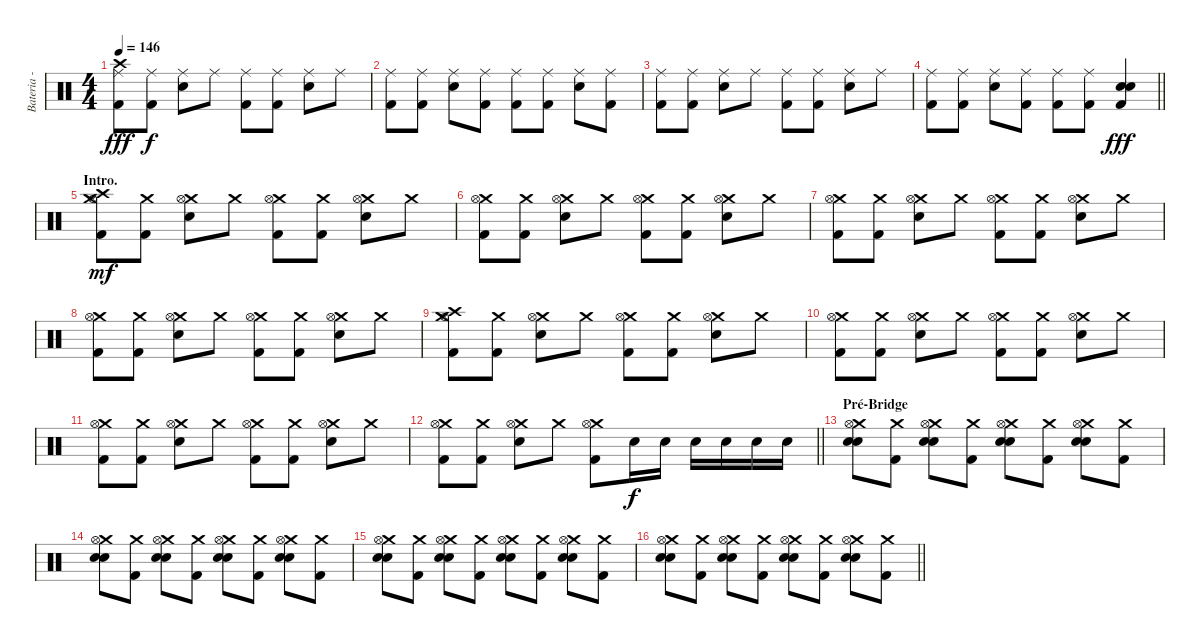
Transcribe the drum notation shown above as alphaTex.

\track ("Bateria - Larzon" "Bateria - ") {instrument percussion}
\staff {score}
\articulation defaults
\ts (4 4)
\tempo 146
\clef neutral
\ks c
("Kick (hit) 2" "Ride (middle)" "Crash high (hit)").8{dy fff} ("Kick (hit) 2" "Ride (middle)").8{dy f} ("Electric Snare (hit)" "Ride (middle)").8 "Ride (middle)".8 ("Kick (hit) 2" "Ride (middle)").8 ("Kick (hit) 2" "Ride (middle)").8 ("Electric Snare (hit)" "Ride (middle)").8 "Ride (middle)".8 |
("Kick (hit) 2" "Ride (middle)").8 ("Kick (hit) 2" "Ride (middle)").8 ("Electric Snare (hit)" "Ride (middle)").8 ("Kick (hit) 2" "Ride (middle)").8 ("Kick (hit) 2" "Ride (middle)").8 ("Kick (hit) 2" "Ride (middle)").8 ("Electric Snare (hit)" "Ride (middle)").8 ("Kick (hit) 2" "Ride (middle)").8 |
("Kick (hit) 2" "Ride (middle)").8 ("Kick (hit) 2" "Ride (middle)").8 ("Electric Snare (hit)" "Ride (middle)").8 "Ride (middle)".8 ("Kick (hit) 2" "Ride (middle)").8 ("Kick (hit) 2" "Ride (middle)").8 ("Electric Snare (hit)" "Ride (middle)").8 "Ride (middle)".8 |
\barLineRight lightlight
("Kick (hit) 2" "Ride (middle)").8 ("Kick (hit) 2" "Ride (middle)").8 ("Electric Snare (hit)" "Ride (middle)").8 ("Kick (hit) 2" "Ride (middle)").8 ("Kick (hit) 2" "Ride (middle)").8 ("Kick (hit) 2" "Ride (middle)").8 ("Electric Snare (hit)" "Electric Snare (hit)" "Kick (hit) 2").4{dy fff} |
\section ("" "Intro.")
("Kick (hit) 2" "Crash medium (hit)" "Crash high (hit)" "Hi-Hat (open)").8{dy mf} ("Kick (hit) 2" "Crash medium (hit)").8 ("Electric Snare (hit)" "Crash medium (hit)" "Hi-Hat (open)").8 "Crash medium (hit)".8 ("Kick (hit) 2" "Crash medium (hit)" "Hi-Hat (open)").8 ("Kick (hit) 2" "Crash medium (hit)").8 ("Electric Snare (hit)" "Crash medium (hit)" "Hi-Hat (open)").8 "Crash medium (hit)".8 |
("Kick (hit) 2" "Crash medium (hit)" "Hi-Hat (open)").8 ("Kick (hit) 2" "Crash medium (hit)").8 ("Electric Snare (hit)" "Crash medium (hit)" "Hi-Hat (open)").8 "Crash medium (hit)".8 ("Kick (hit) 2" "Crash medium (hit)" "Hi-Hat (open)").8 ("Kick (hit) 2" "Crash medium (hit)").8 ("Electric Snare (hit)" "Crash medium (hit)" "Hi-Hat (open)").8 "Crash medium (hit)".8 |
("Kick (hit) 2" "Crash medium (hit)" "Hi-Hat (open)").8 ("Kick (hit) 2" "Crash medium (hit)").8 ("Electric Snare (hit)" "Crash medium (hit)" "Hi-Hat (open)").8 "Crash medium (hit)".8 ("Kick (hit) 2" "Crash medium (hit)" "Hi-Hat (open)").8 ("Kick (hit) 2" "Crash medium (hit)").8 ("Electric Snare (hit)" "Crash medium (hit)" "Hi-Hat (open)").8 "Crash medium (hit)".8 |
("Kick (hit) 2" "Crash medium (hit)" "Hi-Hat (open)").8 ("Kick (hit) 2" "Crash medium (hit)").8 ("Electric Snare (hit)" "Crash medium (hit)" "Hi-Hat (open)").8 "Crash medium (hit)".8 ("Kick (hit) 2" "Crash medium (hit)" "Hi-Hat (open)").8 ("Kick (hit) 2" "Crash medium (hit)").8 ("Electric Snare (hit)" "Crash medium (hit)" "Hi-Hat (open)").8 "Crash medium (hit)".8 |
("Kick (hit) 2" "Crash medium (hit)" "Crash high (hit)" "Hi-Hat (open)").8 ("Kick (hit) 2" "Crash medium (hit)").8 ("Electric Snare (hit)" "Crash medium (hit)" "Hi-Hat (open)").8 "Crash medium (hit)".8 ("Kick (hit) 2" "Crash medium (hit)" "Hi-Hat (open)").8 ("Kick (hit) 2" "Crash medium (hit)").8 ("Electric Snare (hit)" "Crash medium (hit)" "Hi-Hat (open)").8 "Crash medium (hit)".8 |
("Kick (hit) 2" "Crash medium (hit)" "Hi-Hat (open)").8 ("Kick (hit) 2" "Crash medium (hit)").8 ("Electric Snare (hit)" "Crash medium (hit)" "Hi-Hat (open)").8 "Crash medium (hit)".8 ("Kick (hit) 2" "Crash medium (hit)" "Hi-Hat (open)").8 ("Kick (hit) 2" "Crash medium (hit)").8 ("Electric Snare (hit)" "Crash medium (hit)" "Hi-Hat (open)").8 "Crash medium (hit)".8 |
("Kick (hit) 2" "Crash medium (hit)" "Hi-Hat (open)").8 ("Kick (hit) 2" "Crash medium (hit)").8 ("Electric Snare (hit)" "Crash medium (hit)" "Hi-Hat (open)").8 "Crash medium (hit)".8 ("Kick (hit) 2" "Crash medium (hit)" "Hi-Hat (open)").8 ("Kick (hit) 2" "Crash medium (hit)").8 ("Electric Snare (hit)" "Crash medium (hit)" "Hi-Hat (open)").8 "Crash medium (hit)".8 |
\barLineRight lightlight
("Kick (hit) 2" "Crash medium (hit)" "Hi-Hat (open)").8 ("Kick (hit) 2" "Crash medium (hit)").8 ("Electric Snare (hit)" "Crash medium (hit)" "Hi-Hat (open)").8 "Crash medium (hit)".8 ("Kick (hit) 2" "Crash medium (hit)" "Hi-Hat (open)").8 "Electric Snare (hit)".16{dy f} "Electric Snare (hit)".16 "Electric Snare (hit)".16 "Electric Snare (hit)".16 "Electric Snare (hit)".16 "Electric Snare (hit)".16 |
\section ("" "Pré-Bridge")
("Electric Snare (hit)" "Crash medium (hit)" "Electric Snare (hit)" "Hi-Hat (open)").8 ("Kick (hit) 2" "Crash medium (hit)").8 ("Electric Snare (hit)" "Crash medium (hit)" "Electric Snare (hit)" "Hi-Hat (open)").8 ("Kick (hit) 2" "Crash medium (hit)").8 ("Electric Snare (hit)" "Crash medium (hit)" "Electric Snare (hit)" "Hi-Hat (open)").8 ("Kick (hit) 2" "Crash medium (hit)").8 ("Electric Snare (hit)" "Crash medium (hit)" "Electric Snare (hit)" "Hi-Hat (open)").8 ("Kick (hit) 2" "Crash medium (hit)").8 |
("Electric Snare (hit)" "Crash medium (hit)" "Electric Snare (hit)" "Hi-Hat (open)").8 ("Kick (hit) 2" "Crash medium (hit)").8 ("Electric Snare (hit)" "Crash medium (hit)" "Electric Snare (hit)" "Hi-Hat (open)").8 ("Kick (hit) 2" "Crash medium (hit)").8 ("Electric Snare (hit)" "Crash medium (hit)" "Electric Snare (hit)" "Hi-Hat (open)").8 ("Kick (hit) 2" "Crash medium (hit)").8 ("Electric Snare (hit)" "Crash medium (hit)" "Electric Snare (hit)" "Hi-Hat (open)").8 ("Kick (hit) 2" "Crash medium (hit)").8 |
("Electric Snare (hit)" "Crash medium (hit)" "Electric Snare (hit)" "Hi-Hat (open)").8 ("Kick (hit) 2" "Crash medium (hit)").8 ("Electric Snare (hit)" "Crash medium (hit)" "Electric Snare (hit)" "Hi-Hat (open)").8 ("Kick (hit) 2" "Crash medium (hit)").8 ("Electric Snare (hit)" "Crash medium (hit)" "Electric Snare (hit)" "Hi-Hat (open)").8 ("Kick (hit) 2" "Crash medium (hit)").8 ("Electric Snare (hit)" "Crash medium (hit)" "Electric Snare (hit)" "Hi-Hat (open)").8 ("Kick (hit) 2" "Crash medium (hit)").8 |
\barLineRight lightlight
("Electric Snare (hit)" "Crash medium (hit)" "Electric Snare (hit)" "Hi-Hat (open)").8 ("Kick (hit) 2" "Crash medium (hit)").8 ("Electric Snare (hit)" "Crash medium (hit)" "Electric Snare (hit)" "Hi-Hat (open)").8 ("Kick (hit) 2" "Crash medium (hit)").8 ("Electric Snare (hit)" "Crash medium (hit)" "Electric Snare (hit)" "Hi-Hat (open)").8 ("Kick (hit) 2" "Crash medium (hit)").8 ("Electric Snare (hit)" "Crash medium (hit)" "Electric Snare (hit)" "Hi-Hat (open)").8 ("Kick (hit) 2" "Crash medium (hit)").8
